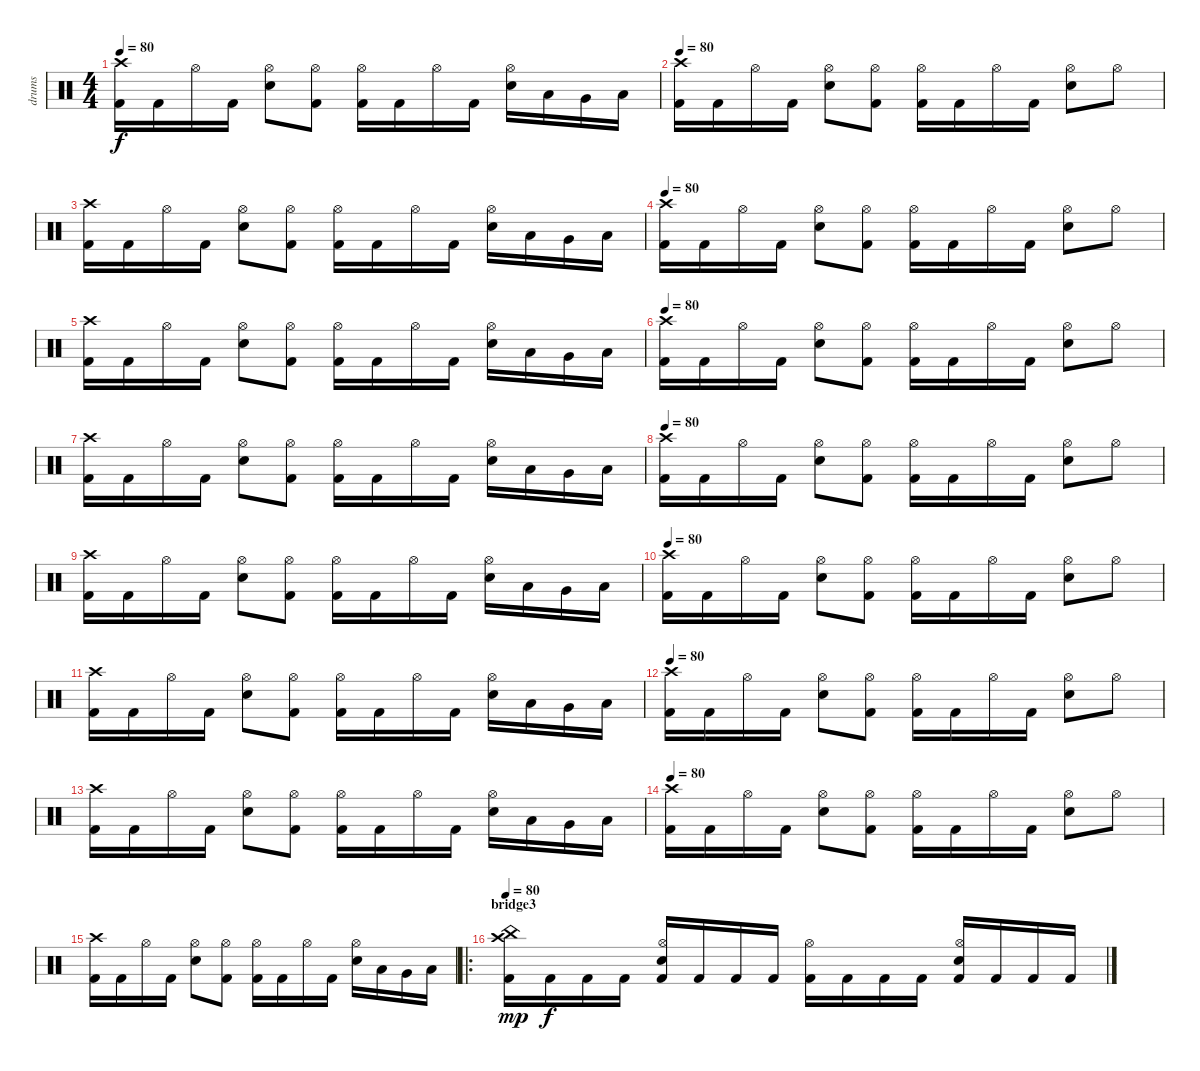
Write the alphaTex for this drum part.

\track ("drums" "drums") {instrument percussion}
\staff {score}
\articulation defaults
\ts (4 4)
\tempo 80
\clef neutral
\ks c
("Crash high (hit)" "Kick (hit) 2").16{dy f} "Kick (hit) 2".16 "Hi-Hat (open)".16 "Kick (hit) 2".16 ("Hi-Hat (open)" "Electric Snare (hit)").8 ("Hi-Hat (open)" "Kick (hit) 2").8 ("Hi-Hat (open)" "Kick (hit) 2").16 "Kick (hit) 2".16 "Hi-Hat (open)".16 "Kick (hit) 2".16 ("Hi-Hat (open)" "Electric Snare (hit)").16 "Low Tom (hit)".16 "Very Low Tom (hit)".16 "Low Floor Tom (hit)".16 |
\tempo 80
("Crash high (hit)" "Kick (hit) 2").16 "Kick (hit) 2".16 "Hi-Hat (open)".16 "Kick (hit) 2".16 ("Hi-Hat (open)" "Electric Snare (hit)").8 ("Hi-Hat (open)" "Kick (hit) 2").8 ("Hi-Hat (open)" "Kick (hit) 2").16 "Kick (hit) 2".16 "Hi-Hat (open)".16 "Kick (hit) 2".16 ("Hi-Hat (open)" "Electric Snare (hit)").8 "Hi-Hat (open)".8 |
("Crash high (hit)" "Kick (hit) 2").16 "Kick (hit) 2".16 "Hi-Hat (open)".16 "Kick (hit) 2".16 ("Hi-Hat (open)" "Electric Snare (hit)").8 ("Hi-Hat (open)" "Kick (hit) 2").8 ("Hi-Hat (open)" "Kick (hit) 2").16 "Kick (hit) 2".16 "Hi-Hat (open)".16 "Kick (hit) 2".16 ("Hi-Hat (open)" "Electric Snare (hit)").16 "Low Tom (hit)".16 "Very Low Tom (hit)".16 "Low Floor Tom (hit)".16 |
\tempo 80
("Crash high (hit)" "Kick (hit) 2").16 "Kick (hit) 2".16 "Hi-Hat (open)".16 "Kick (hit) 2".16 ("Hi-Hat (open)" "Electric Snare (hit)").8 ("Hi-Hat (open)" "Kick (hit) 2").8 ("Hi-Hat (open)" "Kick (hit) 2").16 "Kick (hit) 2".16 "Hi-Hat (open)".16 "Kick (hit) 2".16 ("Hi-Hat (open)" "Electric Snare (hit)").8 "Hi-Hat (open)".8 |
("Crash high (hit)" "Kick (hit) 2").16 "Kick (hit) 2".16 "Hi-Hat (open)".16 "Kick (hit) 2".16 ("Hi-Hat (open)" "Electric Snare (hit)").8 ("Hi-Hat (open)" "Kick (hit) 2").8 ("Hi-Hat (open)" "Kick (hit) 2").16 "Kick (hit) 2".16 "Hi-Hat (open)".16 "Kick (hit) 2".16 ("Hi-Hat (open)" "Electric Snare (hit)").16 "Low Tom (hit)".16 "Very Low Tom (hit)".16 "Low Floor Tom (hit)".16 |
\tempo 80
("Crash high (hit)" "Kick (hit) 2").16 "Kick (hit) 2".16 "Hi-Hat (open)".16 "Kick (hit) 2".16 ("Hi-Hat (open)" "Electric Snare (hit)").8 ("Hi-Hat (open)" "Kick (hit) 2").8 ("Hi-Hat (open)" "Kick (hit) 2").16 "Kick (hit) 2".16 "Hi-Hat (open)".16 "Kick (hit) 2".16 ("Hi-Hat (open)" "Electric Snare (hit)").8 "Hi-Hat (open)".8 |
("Crash high (hit)" "Kick (hit) 2").16 "Kick (hit) 2".16 "Hi-Hat (open)".16 "Kick (hit) 2".16 ("Hi-Hat (open)" "Electric Snare (hit)").8 ("Hi-Hat (open)" "Kick (hit) 2").8 ("Hi-Hat (open)" "Kick (hit) 2").16 "Kick (hit) 2".16 "Hi-Hat (open)".16 "Kick (hit) 2".16 ("Hi-Hat (open)" "Electric Snare (hit)").16 "Low Tom (hit)".16 "Very Low Tom (hit)".16 "Low Floor Tom (hit)".16 |
\tempo 80
("Crash high (hit)" "Kick (hit) 2").16 "Kick (hit) 2".16 "Hi-Hat (open)".16 "Kick (hit) 2".16 ("Hi-Hat (open)" "Electric Snare (hit)").8 ("Hi-Hat (open)" "Kick (hit) 2").8 ("Hi-Hat (open)" "Kick (hit) 2").16 "Kick (hit) 2".16 "Hi-Hat (open)".16 "Kick (hit) 2".16 ("Hi-Hat (open)" "Electric Snare (hit)").8 "Hi-Hat (open)".8 |
("Crash high (hit)" "Kick (hit) 2").16 "Kick (hit) 2".16 "Hi-Hat (open)".16 "Kick (hit) 2".16 ("Hi-Hat (open)" "Electric Snare (hit)").8 ("Hi-Hat (open)" "Kick (hit) 2").8 ("Hi-Hat (open)" "Kick (hit) 2").16 "Kick (hit) 2".16 "Hi-Hat (open)".16 "Kick (hit) 2".16 ("Hi-Hat (open)" "Electric Snare (hit)").16 "Low Tom (hit)".16 "Very Low Tom (hit)".16 "Low Floor Tom (hit)".16 |
\tempo 80
("Crash high (hit)" "Kick (hit) 2").16 "Kick (hit) 2".16 "Hi-Hat (open)".16 "Kick (hit) 2".16 ("Hi-Hat (open)" "Electric Snare (hit)").8 ("Hi-Hat (open)" "Kick (hit) 2").8 ("Hi-Hat (open)" "Kick (hit) 2").16 "Kick (hit) 2".16 "Hi-Hat (open)".16 "Kick (hit) 2".16 ("Hi-Hat (open)" "Electric Snare (hit)").8 "Hi-Hat (open)".8 |
("Crash high (hit)" "Kick (hit) 2").16 "Kick (hit) 2".16 "Hi-Hat (open)".16 "Kick (hit) 2".16 ("Hi-Hat (open)" "Electric Snare (hit)").8 ("Hi-Hat (open)" "Kick (hit) 2").8 ("Hi-Hat (open)" "Kick (hit) 2").16 "Kick (hit) 2".16 "Hi-Hat (open)".16 "Kick (hit) 2".16 ("Hi-Hat (open)" "Electric Snare (hit)").16 "Low Tom (hit)".16 "Very Low Tom (hit)".16 "Low Floor Tom (hit)".16 |
\tempo 80
("Crash high (hit)" "Kick (hit) 2").16 "Kick (hit) 2".16 "Hi-Hat (open)".16 "Kick (hit) 2".16 ("Hi-Hat (open)" "Electric Snare (hit)").8 ("Hi-Hat (open)" "Kick (hit) 2").8 ("Hi-Hat (open)" "Kick (hit) 2").16 "Kick (hit) 2".16 "Hi-Hat (open)".16 "Kick (hit) 2".16 ("Hi-Hat (open)" "Electric Snare (hit)").8 "Hi-Hat (open)".8 |
("Crash high (hit)" "Kick (hit) 2").16 "Kick (hit) 2".16 "Hi-Hat (open)".16 "Kick (hit) 2".16 ("Hi-Hat (open)" "Electric Snare (hit)").8 ("Hi-Hat (open)" "Kick (hit) 2").8 ("Hi-Hat (open)" "Kick (hit) 2").16 "Kick (hit) 2".16 "Hi-Hat (open)".16 "Kick (hit) 2".16 ("Hi-Hat (open)" "Electric Snare (hit)").16 "Low Tom (hit)".16 "Very Low Tom (hit)".16 "Low Floor Tom (hit)".16 |
\tempo 80
("Crash high (hit)" "Kick (hit) 2").16 "Kick (hit) 2".16 "Hi-Hat (open)".16 "Kick (hit) 2".16 ("Hi-Hat (open)" "Electric Snare (hit)").8 ("Hi-Hat (open)" "Kick (hit) 2").8 ("Hi-Hat (open)" "Kick (hit) 2").16 "Kick (hit) 2".16 "Hi-Hat (open)".16 "Kick (hit) 2".16 ("Hi-Hat (open)" "Electric Snare (hit)").8 "Hi-Hat (open)".8 |
("Crash high (hit)" "Kick (hit) 2").16 "Kick (hit) 2".16 "Hi-Hat (open)".16 "Kick (hit) 2".16 ("Hi-Hat (open)" "Electric Snare (hit)").8 ("Hi-Hat (open)" "Kick (hit) 2").8 ("Hi-Hat (open)" "Kick (hit) 2").16 "Kick (hit) 2".16 "Hi-Hat (open)".16 "Kick (hit) 2".16 ("Hi-Hat (open)" "Electric Snare (hit)").16 "Low Tom (hit)".16 "Very Low Tom (hit)".16 "Low Floor Tom (hit)".16 |
\ro
\section ("" "bridge3")
\tempo 80
("China (hit)" "Crash high (hit)" "Kick (hit) 2").16{dy mp} "Kick (hit) 2".16{dy f} "Kick (hit) 2".16 "Kick (hit) 2".16 ("Hi-Hat (open)" "Electric Snare (hit)" "Kick (hit) 2").16 "Kick (hit) 2".16 "Kick (hit) 2".16 "Kick (hit) 2".16 ("Hi-Hat (open)" "Kick (hit) 2").16 "Kick (hit) 2".16 "Kick (hit) 2".16 "Kick (hit) 2".16 ("Hi-Hat (open)" "Electric Snare (hit)" "Kick (hit) 2").16 "Kick (hit) 2".16 "Kick (hit) 2".16 "Kick (hit) 2".16
